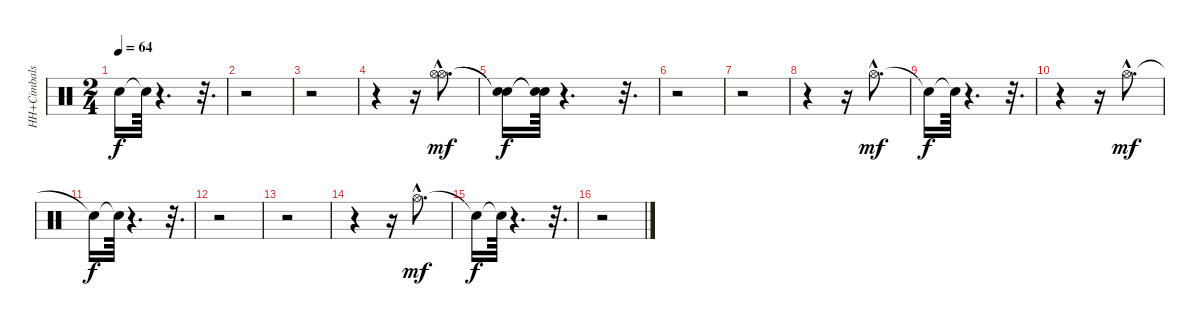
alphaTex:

\track ("HH+Cimbals" "HH+Cimbals") {instrument percussion}
\staff {score}
\articulation defaults
\ts (2 4)
\tempo 64
\clef neutral
\ks c "Snare (hit)"{t}.16{dy f} "Snare (hit)"{t}.64
r.4{d} r.32{d} |
r.2 |
r.2 |
r.4 r.16 ("Hi-Hat (open)"{hac} "Hi-Hat (open)"{hac}).8{d dy mf} |
("Snare (hit)"{t} "Snare (hit)"{t}).16{dy f} ("Snare (hit)"{t} "Snare (hit)"{t}).64 r.4{d} r.32{d} |
r.2 |
r.2 |
r.4 r.16 "Hi-Hat (open)"{hac}.8{d dy mf} |
"Snare (hit)"{t}.16{dy f} "Snare (hit)"{t}.64 r.4{d} r.32{d} |
r.4 r.16 "Hi-Hat (open)"{hac}.8{d dy mf} |
"Snare (hit)"{t}.16{dy f} "Snare (hit)"{t}.64 r.4{d} r.32{d} |
r.2 |
r.2 |
r.4 r.16 "Hi-Hat (open)"{hac}.8{d dy mf} |
"Snare (hit)"{t}.16{dy f} "Snare (hit)"{t}.64 r.4{d} r.32{d} |
r.2
